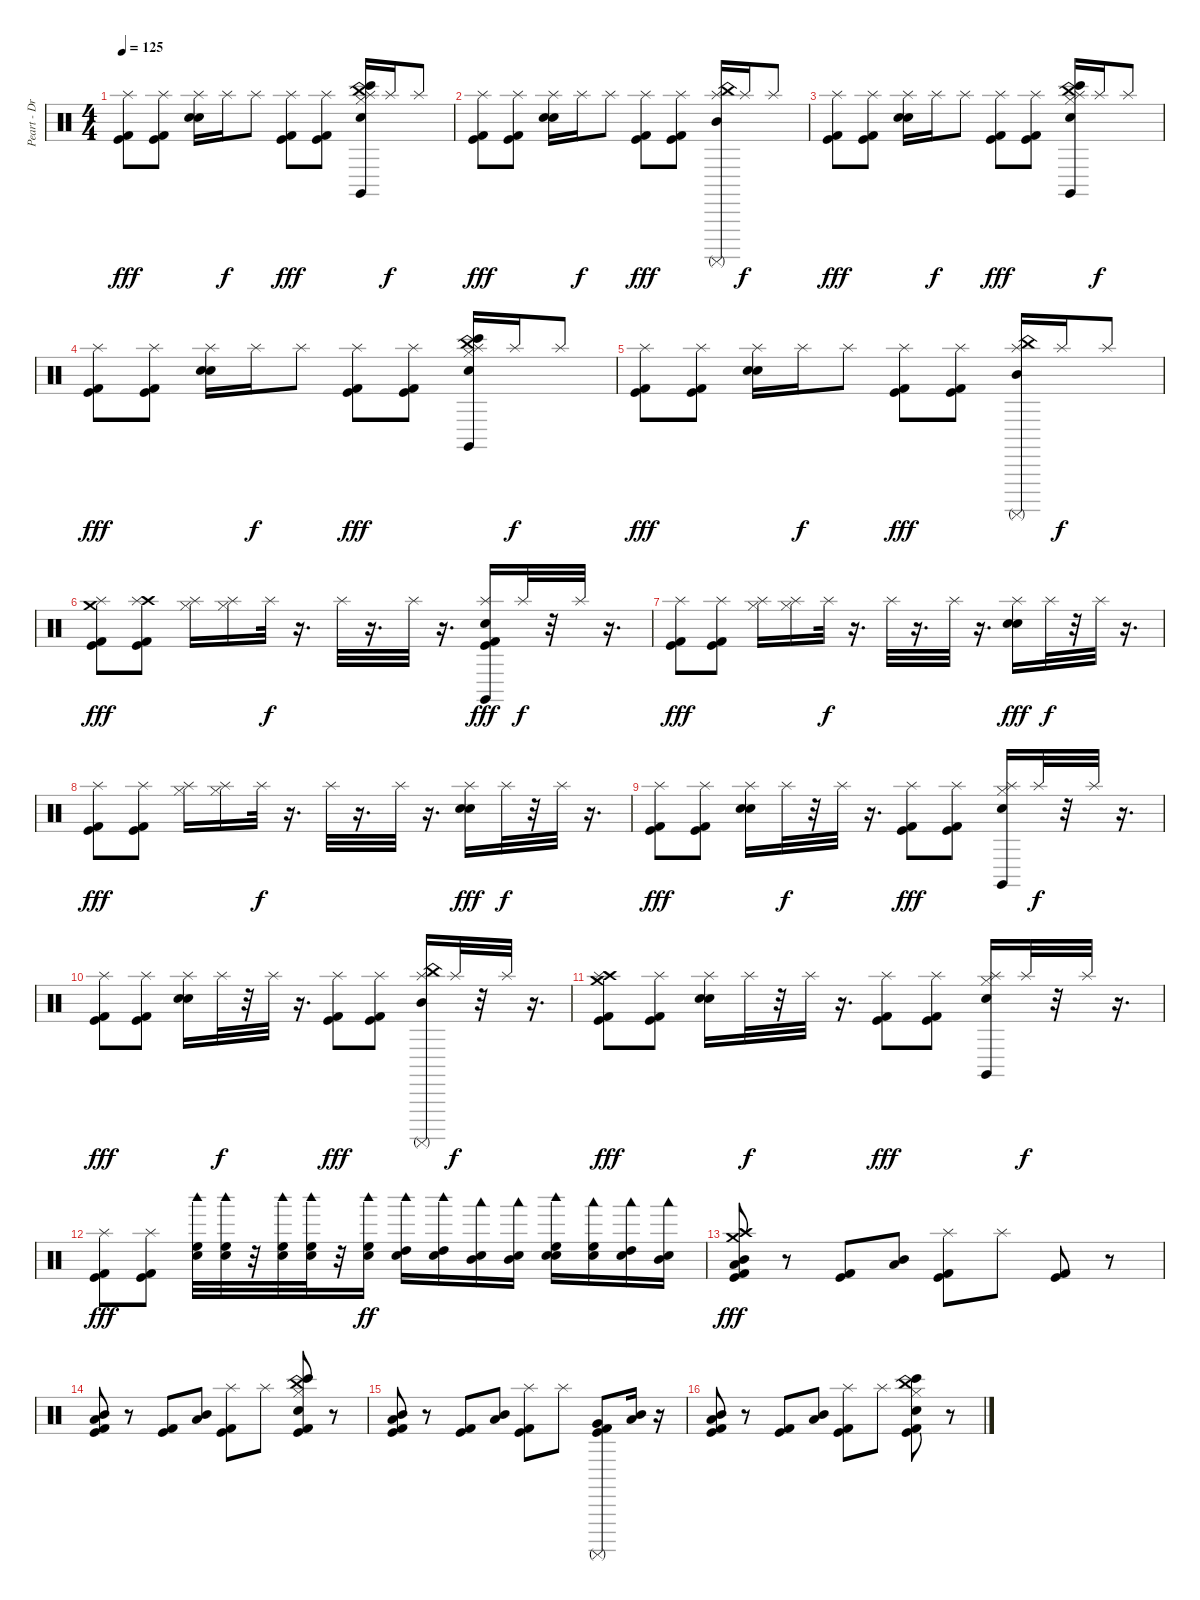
\track ("Peart - Drums" "Peart - Dr") {instrument percussion}
\staff {score}
\articulation defaults
\ts (4 4)
\tempo 125
\clef neutral
\ks c
("Kick (hit) 2" "Kick (hit)" "Splash (hit)").8{dy fff} ("Kick (hit) 2" "Kick (hit)" "Splash (hit)").8 ("Electric Snare (hit)" "Snare (hit) 2" "Splash (hit)").16 "Splash (hit)".16{dy f} "Splash (hit)".8 ("Kick (hit) 2" "Kick (hit)" "Splash (hit)").8{dy fff} ("Kick (hit) 2" "Kick (hit)" "Splash (hit)").8 ("Electric Snare (hit)" "Hi-Hat (closed)" "China (hit)" "Bongo High (hit)" "Claves (hit)" "Splash (hit)").16 "Splash (hit)".16{dy f} "Splash (hit)".8 |
("Kick (hit) 2" "Kick (hit)" "Splash (hit)").8{dy fff} ("Kick (hit)" "Kick (hit) 2" "Splash (hit)").8 ("Snare (hit) 2" "Electric Snare (hit)" "Splash (hit)").16 "Splash (hit)".16{dy f} "Splash (hit)".8 ("Kick (hit) 2" "Kick (hit)" "Splash (hit)").8{dy fff} ("Kick (hit) 2" "Kick (hit)" "Splash (hit)").8 ("Mid Tom (hit)" "Surdo (mute)" "China (hit)" "Splash (hit)").16 "Splash (hit)".16{dy f} "Splash (hit)".8 |
("Kick (hit) 2" "Kick (hit)" "Splash (hit)").8{dy fff} ("Kick (hit) 2" "Kick (hit)" "Splash (hit)").8 ("Electric Snare (hit)" "Snare (hit) 2" "Splash (hit)").16 "Splash (hit)".16{dy f} "Splash (hit)".8 ("Kick (hit) 2" "Kick (hit)" "Splash (hit)").8{dy fff} ("Kick (hit) 2" "Kick (hit)" "Splash (hit)").8 ("Electric Snare (hit)" "Hi-Hat (closed)" "China (hit)" "Bongo High (hit)" "Claves (hit)" "Splash (hit)").16 "Splash (hit)".16{dy f} "Splash (hit)".8 |
("Kick (hit)" "Kick (hit) 2" "Splash (hit)").8{dy fff} ("Kick (hit) 2" "Kick (hit)" "Splash (hit)").8 ("Electric Snare (hit)" "Snare (hit) 2" "Splash (hit)").16 "Splash (hit)".16{dy f} "Splash (hit)".8 ("Kick (hit) 2" "Kick (hit)" "Splash (hit)").8{dy fff} ("Kick (hit) 2" "Kick (hit)" "Splash (hit)").8 ("Electric Snare (hit)" "Hi-Hat (closed)" "China (hit)" "Bongo High (hit)" "Claves (hit)" "Splash (hit)").16 "Splash (hit)".16{dy f} "Splash (hit)".8 |
("Kick (hit) 2" "Kick (hit)" "Splash (hit)").8{dy fff} ("Kick (hit)" "Kick (hit) 2" "Splash (hit)").8 ("Snare (hit) 2" "Electric Snare (hit)" "Splash (hit)").16 "Splash (hit)".16{dy f} "Splash (hit)".8 ("Kick (hit) 2" "Kick (hit)" "Splash (hit)").8{dy fff} ("Kick (hit) 2" "Kick (hit)" "Splash (hit)").8 ("Mid Tom (hit)" "Surdo (mute)" "China (hit)" "Splash (hit)").16 "Splash (hit)".16{dy f} "Splash (hit)".8 |
("Kick (hit) 2" "Kick (hit)" "Crash medium (hit)" "Splash (hit)").8{dy fff} ("Kick (hit) 2" "Kick (hit)" "Crash high (hit)" "Splash (hit)").8 ("Splash (hit)" "Hi-Hat (closed)").16 ("Splash (hit)" "Hi-Hat (closed)").16 "Splash (hit)".32{dy f} r.16{d} "Splash (hit)".32 r.16{d} "Splash (hit)".32 r.16{d} ("Claves (hit)" "Kick (hit) 2" "Kick (hit)" "Electric Snare (hit)" "Splash (hit)").16{dy fff} "Splash (hit)".32{dy f} r.32 "Splash (hit)".32 r.16{d} |
("Kick (hit) 2" "Kick (hit)" "Splash (hit)").8{dy fff} ("Kick (hit) 2" "Kick (hit)" "Splash (hit)").8 ("Splash (hit)" "Hi-Hat (closed)").16 ("Splash (hit)" "Hi-Hat (closed)").16 "Splash (hit)".32{dy f} r.16{d} "Splash (hit)".32 r.16{d} "Splash (hit)".32 r.16{d} ("Electric Snare (hit)" "Snare (hit) 2" "Splash (hit)").16{dy fff} "Splash (hit)".32{dy f} r.32 "Splash (hit)".32 r.16{d} |
("Kick (hit) 2" "Kick (hit)" "Splash (hit)").8{dy fff} ("Kick (hit) 2" "Kick (hit)" "Splash (hit)").8 ("Splash (hit)" "Hi-Hat (closed)").16 ("Splash (hit)" "Hi-Hat (closed)").16 "Splash (hit)".32{dy f} r.16{d} "Splash (hit)".32 r.16{d} "Splash (hit)".32 r.16{d} ("Electric Snare (hit)" "Snare (hit) 2" "Splash (hit)").16{dy fff} "Splash (hit)".32{dy f} r.32 "Splash (hit)".32 r.16{d} |
("Kick (hit) 2" "Kick (hit)" "Splash (hit)").8{dy fff} ("Kick (hit) 2" "Kick (hit)" "Splash (hit)").8 ("Electric Snare (hit)" "Snare (hit) 2" "Splash (hit)").16 "Splash (hit)".32{dy f} r.32 "Splash (hit)".32 r.16{d} ("Kick (hit) 2" "Kick (hit)" "Splash (hit)").8{dy fff} ("Kick (hit) 2" "Kick (hit)" "Splash (hit)").8 ("Electric Snare (hit)" "Hi-Hat (closed)" "Claves (hit)" "Splash (hit)").16 "Splash (hit)".32{dy f} r.32 "Splash (hit)".32 r.16{d} |
("Kick (hit)" "Kick (hit) 2" "Splash (hit)").8{dy fff} ("Kick (hit) 2" "Kick (hit)" "Splash (hit)").8 ("Snare (hit) 2" "Electric Snare (hit)" "Splash (hit)").16 "Splash (hit)".32{dy f} r.32 "Splash (hit)".32 r.16{d} ("Kick (hit)" "Kick (hit) 2" "Splash (hit)").8{dy fff} ("Kick (hit) 2" "Kick (hit)" "Splash (hit)").8 ("Surdo (mute)" "Mid Tom (hit)" "China (hit)" "Splash (hit)").16 "Splash (hit)".32{dy f} r.32 "Splash (hit)".32 r.16{d} |
("Kick (hit)" "Kick (hit) 2" "Crash medium (hit)" "Crash high (hit)" "Splash (hit)").8{dy fff} ("Kick (hit) 2" "Kick (hit)" "Splash (hit)").8 ("Electric Snare (hit)" "Snare (hit) 2" "Splash (hit)").16 "Splash (hit)".32{dy f} r.32 "Splash (hit)".32 r.16{d} ("Kick (hit) 2" "Kick (hit)" "Splash (hit)").8{dy fff} ("Kick (hit) 2" "Kick (hit)" "Splash (hit)").8 ("Electric Snare (hit)" "Hi-Hat (closed)" "Claves (hit)" "Splash (hit)").16 "Splash (hit)".32{dy f} r.32 "Splash (hit)".32 r.16{d} |
("Kick (hit)" "Kick (hit) 2" "Splash (hit)").8{dy fff} ("Kick (hit) 2" "Kick (hit)" "Splash (hit)").8 ("Electric Snare (hit)" "High Floor Tom (hit)" "Woodblock high (hit)").32 ("Electric Snare (hit)" "High Floor Tom (hit)" "Woodblock high (hit)").32 r.32 ("Electric Snare (hit)" "High Floor Tom (hit)" "Woodblock high (hit)").32 ("Electric Snare (hit)" "High Floor Tom (hit)" "Woodblock high (hit)").32 r.32 ("Woodblock high (hit)" "High Floor Tom (hit)" "Electric Snare (hit)").16{dy ff} ("Woodblock high (hit)" "High Tom (hit)" "Electric Snare (hit)").16 ("Woodblock high (hit)" "High Tom (hit)" "Electric Snare (hit)").16 ("Woodblock low (hit)" "Mid Tom (hit)" "Electric Snare (hit)").16 ("Woodblock low (hit)" "Mid Tom (hit)" "Electric Snare (hit)").16 ("Woodblock high (hit)" "High Floor Tom (hit)" "Snare (hit) 2" "Electric Snare (hit)").16 ("Woodblock low (hit)" "High Floor Tom (hit)" "Electric Snare (hit)").16 ("Woodblock low (hit)" "High Tom (hit)" "Electric Snare (hit)").16 ("Woodblock low (hit)" "Mid Tom (hit)" "Electric Snare (hit)").16 |
("Crash medium (hit)" "Kick (hit) 2" "Low Tom (hit)" "Kick (hit)" "Crash high (hit)" "Mid Tom (hit)").8{dy fff} r.8 ("Kick (hit) 2" "Kick (hit)").8 ("Low Tom (hit)" "Mid Tom (hit)").8 ("Kick (hit) 2" "Splash (hit)" "Kick (hit)").8 "Splash (hit)".8 ("Kick (hit) 2" "Kick (hit)").8 r.8 |
("Kick (hit) 2" "Low Tom (hit)" "Kick (hit)" "Mid Tom (hit)").8 r.8 ("Kick (hit) 2" "Kick (hit)").8 ("Low Tom (hit)" "Mid Tom (hit)").8 ("Kick (hit) 2" "Splash (hit)" "Kick (hit)").8 "Splash (hit)".8 ("Kick (hit) 2" "Kick (hit)" "Bongo High (hit)" "Hi-Hat (closed)" "Hand Clap (hit)" "China (hit)").8 r.8 |
("Kick (hit) 2" "Low Tom (hit)" "Kick (hit)" "Mid Tom (hit)").8 r.8 ("Kick (hit) 2" "Kick (hit)").8 ("Low Tom (hit)" "Mid Tom (hit)").8 ("Kick (hit) 2" "Splash (hit)" "Kick (hit)").8 "Splash (hit)".8 ("Kick (hit) 2" "Very Low Tom (hit)" "Kick (hit)" "Surdo (mute)").8 ("Mid Tom (hit)" "Low Tom (hit)").16 r.16 |
("Kick (hit) 2" "Low Tom (hit)" "Kick (hit)" "Mid Tom (hit)").8 r.8 ("Kick (hit) 2" "Kick (hit)").8 ("Low Tom (hit)" "Mid Tom (hit)").8 ("Kick (hit) 2" "Splash (hit)" "Kick (hit)").8 "Splash (hit)".8 ("Kick (hit) 2" "Bongo High (hit)" "Hi-Hat (closed)" "Kick (hit)" "China (hit)" "Electric Snare (hit)").8 r.8
